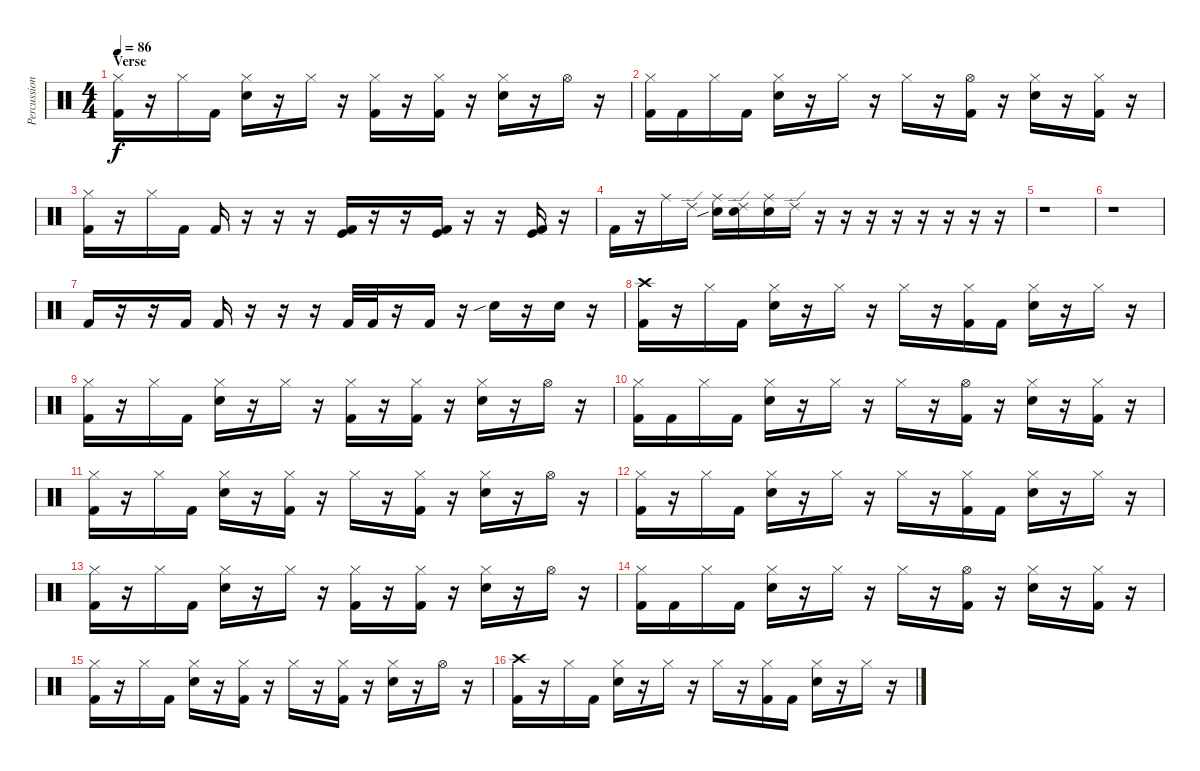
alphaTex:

\track ("Percussions" "Percussion") {instrument percussion}
\staff {score}
\articulation defaults
\ts (4 4)
\section ("" "Verse")
\tempo 86
\clef neutral
\ks c
("Hi-Hat (closed)" "Kick (hit) 2").16{dy f} r.16 "Hi-Hat (closed)".16 "Kick (hit) 2".16 ("Hi-Hat (closed)" "Snare (hit) 2").16 r.16 "Hi-Hat (closed)".16 r.16 ("Hi-Hat (closed)" "Kick (hit) 2").16 r.16 ("Hi-Hat (closed)" "Kick (hit) 2").16 r.16 ("Hi-Hat (closed)" "Snare (hit) 2").16 r.16 "Hi-Hat (open)".16 r.16 |
("Hi-Hat (closed)" "Kick (hit) 2").16 "Kick (hit) 2".16 "Hi-Hat (closed)".16 "Kick (hit) 2".16 ("Hi-Hat (closed)" "Snare (hit) 2").16 r.16 "Hi-Hat (closed)".16 r.16 "Hi-Hat (closed)".16 r.16 ("Hi-Hat (open)" "Kick (hit) 2").16 r.16 ("Hi-Hat (closed)" "Snare (hit) 2").16 r.16 ("Hi-Hat (closed)" "Kick (hit) 2").16 r.16 |
("Hi-Hat (closed)" "Kick (hit) 2").16 r.16 "Hi-Hat (closed)".16 "Kick (hit) 2".16 "Kick (hit) 2".16 r.16 r.16 r.16 ("Kick (hit)" "Kick (hit) 2").16 r.16 r.16 ("Kick (hit)" "Kick (hit) 2").16 r.16 r.16 ("Kick (hit)" "Kick (hit) 2").16 r.16 |
"Kick (hit) 2".16 r.16 "Ride (middle)".16 "Ride (edge) 2".16 ("Ride (middle)" "Snare (hit) 2"{sib}).16 ("Ride (edge) 2" "Snare (hit) 2").16 ("Ride (middle)" "Snare (hit) 2").16 "Ride (edge) 2".16 r.16 r.16 r.16 r.16 r.16 r.16 r.16 r.16 |
r.1 |
r.1 |
"Kick (hit) 2".16 r.16 r.16 "Kick (hit) 2".16 "Kick (hit) 2".16 r.16 r.16 r.16 "Kick (hit) 2".32 "Kick (hit) 2".32 r.16 "Kick (hit) 2".16 r.16 "Snare (hit) 2"{sib}.16 r.16 "Snare (hit) 2".16 r.16 |
("Crash high (hit)" "Kick (hit) 2").16 r.16 "Hi-Hat (closed)".16 "Kick (hit) 2".16 ("Hi-Hat (closed)" "Snare (hit) 2").16 r.16 "Hi-Hat (closed)".16 r.16 "Hi-Hat (closed)".16 r.16 ("Hi-Hat (closed)" "Kick (hit) 2").16 "Kick (hit) 2".16 ("Hi-Hat (closed)" "Snare (hit) 2").16 r.16 "Hi-Hat (closed)".16 r.16 |
("Hi-Hat (closed)" "Kick (hit) 2").16 r.16 "Hi-Hat (closed)".16 "Kick (hit) 2".16 ("Hi-Hat (closed)" "Snare (hit) 2").16 r.16 "Hi-Hat (closed)".16 r.16 ("Hi-Hat (closed)" "Kick (hit) 2").16 r.16 ("Hi-Hat (closed)" "Kick (hit) 2").16 r.16 ("Hi-Hat (closed)" "Snare (hit) 2").16 r.16 "Hi-Hat (open)".16 r.16 |
("Hi-Hat (closed)" "Kick (hit) 2").16 "Kick (hit) 2".16 "Hi-Hat (closed)".16 "Kick (hit) 2".16 ("Hi-Hat (closed)" "Snare (hit) 2").16 r.16 "Hi-Hat (closed)".16 r.16 "Hi-Hat (closed)".16 r.16 ("Hi-Hat (open)" "Kick (hit) 2").16 r.16 ("Hi-Hat (closed)" "Snare (hit) 2").16 r.16 ("Hi-Hat (closed)" "Kick (hit) 2").16 r.16 |
("Hi-Hat (closed)" "Kick (hit) 2").16 r.16 "Hi-Hat (closed)".16 "Kick (hit) 2".16 ("Hi-Hat (closed)" "Snare (hit) 2").16 r.16 ("Hi-Hat (closed)" "Kick (hit) 2").16 r.16 "Hi-Hat (closed)".16 r.16 ("Hi-Hat (closed)" "Kick (hit) 2").16 r.16 ("Hi-Hat (closed)" "Snare (hit) 2").16 r.16 "Hi-Hat (open)".16 r.16 |
("Hi-Hat (closed)" "Kick (hit) 2").16 r.16 "Hi-Hat (closed)".16 "Kick (hit) 2".16 ("Hi-Hat (closed)" "Snare (hit) 2").16 r.16 "Hi-Hat (closed)".16 r.16 "Hi-Hat (closed)".16 r.16 ("Hi-Hat (closed)" "Kick (hit) 2").16 "Kick (hit) 2".16 ("Hi-Hat (closed)" "Snare (hit) 2").16 r.16 "Hi-Hat (closed)".16 r.16 |
("Hi-Hat (closed)" "Kick (hit) 2").16 r.16 "Hi-Hat (closed)".16 "Kick (hit) 2".16 ("Hi-Hat (closed)" "Snare (hit) 2").16 r.16 "Hi-Hat (closed)".16 r.16 ("Hi-Hat (closed)" "Kick (hit) 2").16 r.16 ("Hi-Hat (closed)" "Kick (hit) 2").16 r.16 ("Hi-Hat (closed)" "Snare (hit) 2").16 r.16 "Hi-Hat (open)".16 r.16 |
("Hi-Hat (closed)" "Kick (hit) 2").16 "Kick (hit) 2".16 "Hi-Hat (closed)".16 "Kick (hit) 2".16 ("Hi-Hat (closed)" "Snare (hit) 2").16 r.16 "Hi-Hat (closed)".16 r.16 "Hi-Hat (closed)".16 r.16 ("Hi-Hat (open)" "Kick (hit) 2").16 r.16 ("Hi-Hat (closed)" "Snare (hit) 2").16 r.16 ("Hi-Hat (closed)" "Kick (hit) 2").16 r.16 |
("Hi-Hat (closed)" "Kick (hit) 2").16 r.16 "Hi-Hat (closed)".16 "Kick (hit) 2".16 ("Hi-Hat (closed)" "Snare (hit) 2").16 r.16 ("Hi-Hat (closed)" "Kick (hit) 2").16 r.16 "Hi-Hat (closed)".16 r.16 ("Hi-Hat (closed)" "Kick (hit) 2").16 r.16 ("Hi-Hat (closed)" "Snare (hit) 2").16 r.16 "Hi-Hat (open)".16 r.16 |
("Crash high (hit)" "Kick (hit) 2").16 r.16 "Hi-Hat (closed)".16 "Kick (hit) 2".16 ("Hi-Hat (closed)" "Snare (hit) 2").16 r.16 "Hi-Hat (closed)".16 r.16 "Hi-Hat (closed)".16 r.16 ("Hi-Hat (closed)" "Kick (hit) 2").16 "Kick (hit) 2".16 ("Hi-Hat (closed)" "Snare (hit) 2").16 r.16 "Hi-Hat (closed)".16 r.16
